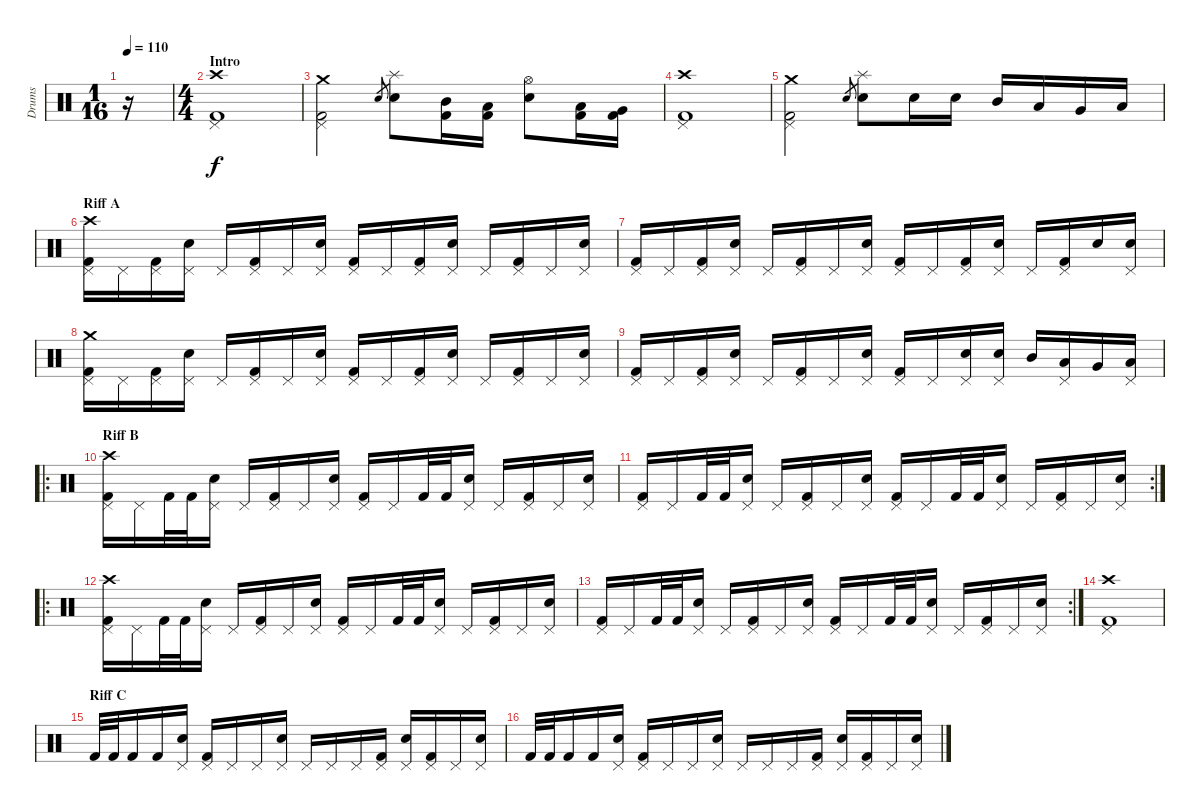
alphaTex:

\track ("Drums" "Drums") {instrument percussion}
\staff {score}
\articulation defaults
\ts (1 16)
\tempo 110
\clef neutral
\ks c
r.16{dy f} |
\ts (4 4)
\section ("" "Intro")
("Kick (hit) 2" "Pedal Hi-Hat (hit)" "Crash high (hit)").1 |
("Kick (hit) 2" "Pedal Hi-Hat (hit)" "Crash medium (hit)").2 "Snare (hit) 2".8{gr} ("Snare (hit) 2" "Splash (hit)").8 ("Kick (hit) 2" "Mid Tom (hit)").16 ("Kick (hit) 2" "Low Tom (hit)").16 ("Snare (hit) 2" "Hi-Hat (open)").8 ("Kick (hit) 2" "Low Tom (hit)").16 ("Kick (hit) 2" "Very Low Tom (hit)").16 |
("Kick (hit) 2" "Pedal Hi-Hat (hit)" "Crash high (hit)").1 |
("Kick (hit) 2" "Pedal Hi-Hat (hit)" "Crash medium (hit)").2 "Snare (hit) 2".8{gr} ("Snare (hit) 2" "Splash (hit)").8 "Snare (hit) 2".16 "Snare (hit) 2".16 "Mid Tom (hit)".16 "Low Tom (hit)".16 "Very Low Tom (hit)".16 "Low Floor Tom (hit)".16 |
\section ("" "Riff A")
("Kick (hit) 2" "Pedal Hi-Hat (hit)" "Crash high (hit)").16 "Pedal Hi-Hat (hit)".16 ("Kick (hit) 2" "Pedal Hi-Hat (hit)").16 ("Snare (hit) 2" "Pedal Hi-Hat (hit)").16 "Pedal Hi-Hat (hit)".16 ("Kick (hit) 2" "Pedal Hi-Hat (hit)").16 "Pedal Hi-Hat (hit)".16 ("Snare (hit) 2" "Pedal Hi-Hat (hit)").16 ("Kick (hit) 2" "Pedal Hi-Hat (hit)").16 "Pedal Hi-Hat (hit)".16 ("Kick (hit) 2" "Pedal Hi-Hat (hit)").16 ("Snare (hit) 2" "Pedal Hi-Hat (hit)").16 "Pedal Hi-Hat (hit)".16 ("Kick (hit) 2" "Pedal Hi-Hat (hit)").16 "Pedal Hi-Hat (hit)".16 ("Snare (hit) 2" "Pedal Hi-Hat (hit)").16 |
("Kick (hit) 2" "Pedal Hi-Hat (hit)").16 "Pedal Hi-Hat (hit)".16 ("Kick (hit) 2" "Pedal Hi-Hat (hit)").16 ("Snare (hit) 2" "Pedal Hi-Hat (hit)").16 "Pedal Hi-Hat (hit)".16 ("Kick (hit) 2" "Pedal Hi-Hat (hit)").16 "Pedal Hi-Hat (hit)".16 ("Snare (hit) 2" "Pedal Hi-Hat (hit)").16 ("Kick (hit) 2" "Pedal Hi-Hat (hit)").16 "Pedal Hi-Hat (hit)".16 ("Kick (hit) 2" "Pedal Hi-Hat (hit)").16 ("Snare (hit) 2" "Pedal Hi-Hat (hit)").16 "Pedal Hi-Hat (hit)".16 ("Kick (hit) 2" "Pedal Hi-Hat (hit)").16 "Snare (hit) 2".16 ("Snare (hit) 2" "Pedal Hi-Hat (hit)").16 |
("Kick (hit) 2" "Pedal Hi-Hat (hit)" "Crash medium (hit)").16 "Pedal Hi-Hat (hit)".16 ("Kick (hit) 2" "Pedal Hi-Hat (hit)").16 ("Snare (hit) 2" "Pedal Hi-Hat (hit)").16 "Pedal Hi-Hat (hit)".16 ("Kick (hit) 2" "Pedal Hi-Hat (hit)").16 "Pedal Hi-Hat (hit)".16 ("Snare (hit) 2" "Pedal Hi-Hat (hit)").16 ("Kick (hit) 2" "Pedal Hi-Hat (hit)").16 "Pedal Hi-Hat (hit)".16 ("Kick (hit) 2" "Pedal Hi-Hat (hit)").16 ("Snare (hit) 2" "Pedal Hi-Hat (hit)").16 "Pedal Hi-Hat (hit)".16 ("Kick (hit) 2" "Pedal Hi-Hat (hit)").16 "Pedal Hi-Hat (hit)".16 ("Snare (hit) 2" "Pedal Hi-Hat (hit)").16 |
("Kick (hit) 2" "Pedal Hi-Hat (hit)").16 "Pedal Hi-Hat (hit)".16 ("Kick (hit) 2" "Pedal Hi-Hat (hit)").16 ("Snare (hit) 2" "Pedal Hi-Hat (hit)").16 "Pedal Hi-Hat (hit)".16 ("Kick (hit) 2" "Pedal Hi-Hat (hit)").16 "Pedal Hi-Hat (hit)".16 ("Snare (hit) 2" "Pedal Hi-Hat (hit)").16 ("Kick (hit) 2" "Pedal Hi-Hat (hit)").16 "Pedal Hi-Hat (hit)".16 ("Snare (hit) 2" "Pedal Hi-Hat (hit)").16 ("Snare (hit) 2" "Pedal Hi-Hat (hit)").16 "Mid Tom (hit)".16 ("Low Tom (hit)" "Pedal Hi-Hat (hit)").16 "Very Low Tom (hit)".16 ("Low Floor Tom (hit)" "Pedal Hi-Hat (hit)").16 |
\ro
\section ("" "Riff B")
("Kick (hit) 2" "Pedal Hi-Hat (hit)" "Crash high (hit)").16 "Pedal Hi-Hat (hit)".16 "Kick (hit) 2".32 "Kick (hit) 2".32 ("Snare (hit) 2" "Pedal Hi-Hat (hit)").16 "Pedal Hi-Hat (hit)".16 ("Kick (hit) 2" "Pedal Hi-Hat (hit)").16 "Pedal Hi-Hat (hit)".16 ("Snare (hit) 2" "Pedal Hi-Hat (hit)").16 ("Kick (hit) 2" "Pedal Hi-Hat (hit)").16 "Pedal Hi-Hat (hit)".16 "Kick (hit) 2".32 "Kick (hit) 2".32 ("Snare (hit) 2" "Pedal Hi-Hat (hit)").16 "Pedal Hi-Hat (hit)".16 ("Kick (hit) 2" "Pedal Hi-Hat (hit)").16 "Pedal Hi-Hat (hit)".16 ("Snare (hit) 2" "Pedal Hi-Hat (hit)").16 |
\rc 2
("Kick (hit) 2" "Pedal Hi-Hat (hit)").16 "Pedal Hi-Hat (hit)".16 "Kick (hit) 2".32 "Kick (hit) 2".32 ("Snare (hit) 2" "Pedal Hi-Hat (hit)").16 "Pedal Hi-Hat (hit)".16 ("Kick (hit) 2" "Pedal Hi-Hat (hit)").16 "Pedal Hi-Hat (hit)".16 ("Snare (hit) 2" "Pedal Hi-Hat (hit)").16 ("Kick (hit) 2" "Pedal Hi-Hat (hit)").16 "Pedal Hi-Hat (hit)".16 "Kick (hit) 2".32 "Kick (hit) 2".32 ("Snare (hit) 2" "Pedal Hi-Hat (hit)").16 "Pedal Hi-Hat (hit)".16 ("Kick (hit) 2" "Pedal Hi-Hat (hit)").16 "Pedal Hi-Hat (hit)".16 ("Snare (hit) 2" "Pedal Hi-Hat (hit)").16 |
\ro
("Kick (hit) 2" "Pedal Hi-Hat (hit)" "Crash high (hit)").16 "Pedal Hi-Hat (hit)".16 "Kick (hit) 2".32 "Kick (hit) 2".32 ("Snare (hit) 2" "Pedal Hi-Hat (hit)").16 "Pedal Hi-Hat (hit)".16 ("Kick (hit) 2" "Pedal Hi-Hat (hit)").16 "Pedal Hi-Hat (hit)".16 ("Snare (hit) 2" "Pedal Hi-Hat (hit)").16 ("Kick (hit) 2" "Pedal Hi-Hat (hit)").16 "Pedal Hi-Hat (hit)".16 "Kick (hit) 2".32 "Kick (hit) 2".32 ("Snare (hit) 2" "Pedal Hi-Hat (hit)").16 "Pedal Hi-Hat (hit)".16 ("Kick (hit) 2" "Pedal Hi-Hat (hit)").16 "Pedal Hi-Hat (hit)".16 ("Snare (hit) 2" "Pedal Hi-Hat (hit)").16 |
\rc 2
("Kick (hit) 2" "Pedal Hi-Hat (hit)").16 "Pedal Hi-Hat (hit)".16 "Kick (hit) 2".32 "Kick (hit) 2".32 ("Snare (hit) 2" "Pedal Hi-Hat (hit)").16 "Pedal Hi-Hat (hit)".16 ("Kick (hit) 2" "Pedal Hi-Hat (hit)").16 "Pedal Hi-Hat (hit)".16 ("Snare (hit) 2" "Pedal Hi-Hat (hit)").16 ("Kick (hit) 2" "Pedal Hi-Hat (hit)").16 "Pedal Hi-Hat (hit)".16 "Kick (hit) 2".32 "Kick (hit) 2".32 ("Snare (hit) 2" "Pedal Hi-Hat (hit)").16 "Pedal Hi-Hat (hit)".16 ("Kick (hit) 2" "Pedal Hi-Hat (hit)").16 "Pedal Hi-Hat (hit)".16 ("Snare (hit) 2" "Pedal Hi-Hat (hit)").16 |
("Kick (hit) 2" "Pedal Hi-Hat (hit)" "Crash high (hit)").1 |
\section ("" "Riff C")
"Kick (hit) 2".32 "Kick (hit) 2".32 "Kick (hit) 2".16 "Kick (hit) 2".16 ("Snare (hit) 2" "Pedal Hi-Hat (hit)").16 ("Kick (hit) 2" "Pedal Hi-Hat (hit)").16 "Pedal Hi-Hat (hit)".16 "Pedal Hi-Hat (hit)".16 ("Snare (hit) 2" "Pedal Hi-Hat (hit)").16 "Pedal Hi-Hat (hit)".16 "Pedal Hi-Hat (hit)".16 "Pedal Hi-Hat (hit)".16 ("Kick (hit) 2" "Pedal Hi-Hat (hit)").16 ("Snare (hit) 2" "Pedal Hi-Hat (hit)").16 ("Kick (hit) 2" "Pedal Hi-Hat (hit)").16 "Pedal Hi-Hat (hit)".16 ("Snare (hit) 2" "Pedal Hi-Hat (hit)").16 |
"Kick (hit) 2".32 "Kick (hit) 2".32 "Kick (hit) 2".16 "Kick (hit) 2".16 ("Snare (hit) 2" "Pedal Hi-Hat (hit)").16 ("Kick (hit) 2" "Pedal Hi-Hat (hit)").16 "Pedal Hi-Hat (hit)".16 "Pedal Hi-Hat (hit)".16 ("Snare (hit) 2" "Pedal Hi-Hat (hit)").16 "Pedal Hi-Hat (hit)".16 "Pedal Hi-Hat (hit)".16 "Pedal Hi-Hat (hit)".16 ("Kick (hit) 2" "Pedal Hi-Hat (hit)").16 ("Snare (hit) 2" "Pedal Hi-Hat (hit)").16 ("Kick (hit) 2" "Pedal Hi-Hat (hit)").16 "Pedal Hi-Hat (hit)".16 ("Snare (hit) 2" "Pedal Hi-Hat (hit)").16
